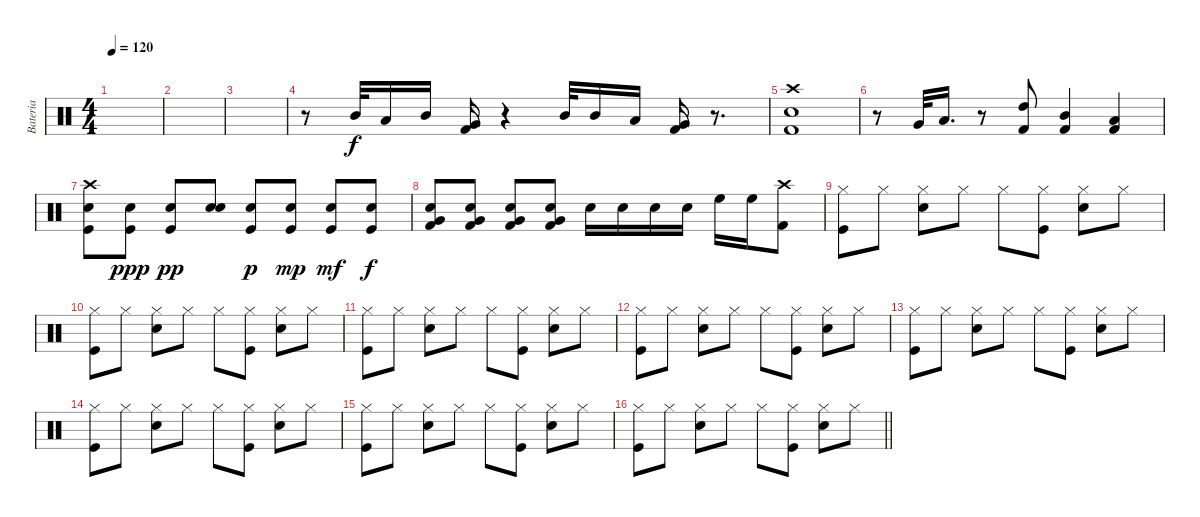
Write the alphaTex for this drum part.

\track ("Bateria" "Bateria") {instrument percussion}
\staff {score}
\articulation defaults
\ts (4 4)
\tempo 120
\clef neutral
\ks c
|
|
|
r.8 "Mid Tom (hit)".32 "Low Tom (hit)".16 "Mid Tom (hit)".16 ("Very Low Tom (hit)" "Kick (hit) 2").16 r.4 "Mid Tom (hit)".32 "Mid Tom (hit)".16 "Low Tom (hit)".16 ("Very Low Tom (hit)" "Kick (hit) 2").16 r.8{d} |
("Crash high (hit)" "Kick (hit) 2" "Snare (hit) 2").1 |
r.8 "Very Low Tom (hit)".32 "Low Tom (hit)".16{d} r.8 ("High Tom (hit)" "Kick (hit) 2").8 ("Mid Tom (hit)" "Kick (hit) 2").4 ("Low Tom (hit)" "Kick (hit) 2").4 |
("Crash high (hit)" "Snare (hit) 2" "Kick (hit)").8 ("Snare (hit) 2" "Kick (hit)").8{dy ppp} ("Snare (hit) 2" "Kick (hit)").8{dy pp} ("Snare (hit) 2" "Snare (hit) 2").8 ("Snare (hit) 2" "Kick (hit)").8{dy p} ("Snare (hit) 2" "Kick (hit)").8{dy mp} ("Snare (hit) 2" "Kick (hit)").8{dy mf} ("Snare (hit) 2" "Kick (hit)").8{dy f} |
("Snare (hit) 2" "Very Low Tom (hit)" "Kick (hit) 2").8 ("Snare (hit) 2" "Very Low Tom (hit)" "Kick (hit) 2").8 ("Snare (hit) 2" "Very Low Tom (hit)" "Kick (hit) 2").8 ("Snare (hit) 2" "Very Low Tom (hit)" "Kick (hit) 2").8 "Snare (hit) 2".16 "Snare (hit) 2".16 "Snare (hit) 2".16 "Snare (hit) 2".16 "High Floor Tom (hit)".16 "High Floor Tom (hit)".16 ("Crash high (hit)" "Kick (hit) 2").8 |
("Hi-Hat (closed)" "Kick (hit)").8 "Hi-Hat (closed)".8 ("Hi-Hat (closed)" "Snare (hit) 2").8 "Hi-Hat (closed)".8 "Hi-Hat (closed)".8 ("Hi-Hat (closed)" "Kick (hit)").8 ("Hi-Hat (closed)" "Snare (hit) 2").8 "Hi-Hat (closed)".8 |
("Hi-Hat (closed)" "Kick (hit)").8 "Hi-Hat (closed)".8 ("Hi-Hat (closed)" "Snare (hit) 2").8 "Hi-Hat (closed)".8 "Hi-Hat (closed)".8 ("Hi-Hat (closed)" "Kick (hit)").8 ("Hi-Hat (closed)" "Snare (hit) 2").8 "Hi-Hat (closed)".8 |
("Hi-Hat (closed)" "Kick (hit)").8 "Hi-Hat (closed)".8 ("Hi-Hat (closed)" "Snare (hit) 2").8 "Hi-Hat (closed)".8 "Hi-Hat (closed)".8 ("Hi-Hat (closed)" "Kick (hit)").8 ("Hi-Hat (closed)" "Snare (hit) 2").8 "Hi-Hat (closed)".8 |
("Hi-Hat (closed)" "Kick (hit)").8 "Hi-Hat (closed)".8 ("Hi-Hat (closed)" "Snare (hit) 2").8 "Hi-Hat (closed)".8 "Hi-Hat (closed)".8 ("Hi-Hat (closed)" "Kick (hit)").8 ("Hi-Hat (closed)" "Snare (hit) 2").8 "Hi-Hat (closed)".8 |
("Hi-Hat (closed)" "Kick (hit)").8 "Hi-Hat (closed)".8 ("Hi-Hat (closed)" "Snare (hit) 2").8 "Hi-Hat (closed)".8 "Hi-Hat (closed)".8 ("Hi-Hat (closed)" "Kick (hit)").8 ("Hi-Hat (closed)" "Snare (hit) 2").8 "Hi-Hat (closed)".8 |
("Hi-Hat (closed)" "Kick (hit)").8 "Hi-Hat (closed)".8 ("Hi-Hat (closed)" "Snare (hit) 2").8 "Hi-Hat (closed)".8 "Hi-Hat (closed)".8 ("Hi-Hat (closed)" "Kick (hit)").8 ("Hi-Hat (closed)" "Snare (hit) 2").8 "Hi-Hat (closed)".8 |
("Hi-Hat (closed)" "Kick (hit)").8 "Hi-Hat (closed)".8 ("Hi-Hat (closed)" "Snare (hit) 2").8 "Hi-Hat (closed)".8 "Hi-Hat (closed)".8 ("Hi-Hat (closed)" "Kick (hit)").8 ("Hi-Hat (closed)" "Snare (hit) 2").8 "Hi-Hat (closed)".8 |
\barLineRight lightlight
("Hi-Hat (closed)" "Kick (hit)").8 "Hi-Hat (closed)".8 ("Hi-Hat (closed)" "Snare (hit) 2").8 "Hi-Hat (closed)".8 "Hi-Hat (closed)".8 ("Hi-Hat (closed)" "Kick (hit)").8 ("Hi-Hat (closed)" "Snare (hit) 2").8 "Hi-Hat (closed)".8
